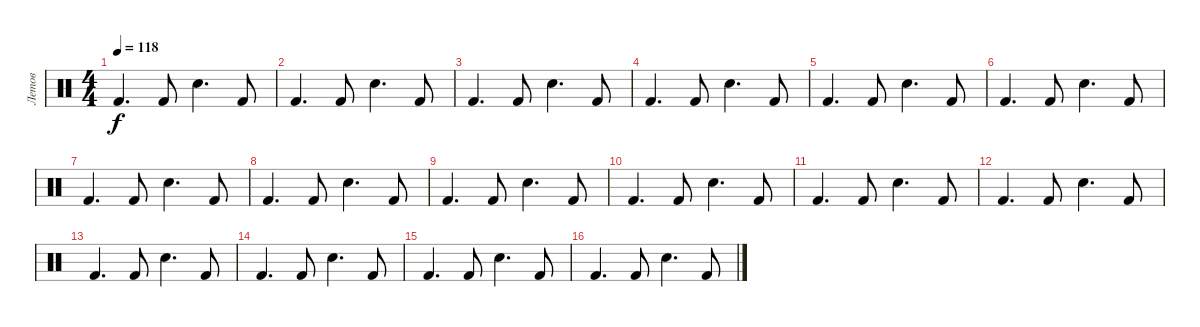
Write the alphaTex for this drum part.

\track ("Летов" "Летов") {instrument percussion}
\staff {score}
\articulation defaults
\ts (4 4)
\tempo 118
\clef neutral
\ks c "Kick (hit) 2".4{d dy f} "Kick (hit) 2".8 "Electric Snare (hit)".4{d} "Kick (hit) 2".8
|
"Kick (hit) 2".4{d} "Kick (hit) 2".8 "Electric Snare (hit)".4{d} "Kick (hit) 2".8 |
"Kick (hit) 2".4{d} "Kick (hit) 2".8 "Electric Snare (hit)".4{d} "Kick (hit) 2".8 |
"Kick (hit) 2".4{d} "Kick (hit) 2".8 "Electric Snare (hit)".4{d} "Kick (hit) 2".8 |
"Kick (hit) 2".4{d} "Kick (hit) 2".8 "Electric Snare (hit)".4{d} "Kick (hit) 2".8 |
"Kick (hit) 2".4{d} "Kick (hit) 2".8 "Electric Snare (hit)".4{d} "Kick (hit) 2".8 |
"Kick (hit) 2".4{d} "Kick (hit) 2".8 "Electric Snare (hit)".4{d} "Kick (hit) 2".8 |
"Kick (hit) 2".4{d} "Kick (hit) 2".8 "Electric Snare (hit)".4{d} "Kick (hit) 2".8 |
"Kick (hit) 2".4{d} "Kick (hit) 2".8 "Electric Snare (hit)".4{d} "Kick (hit) 2".8 |
"Kick (hit) 2".4{d} "Kick (hit) 2".8 "Electric Snare (hit)".4{d} "Kick (hit) 2".8 |
"Kick (hit) 2".4{d} "Kick (hit) 2".8 "Electric Snare (hit)".4{d} "Kick (hit) 2".8 |
"Kick (hit) 2".4{d} "Kick (hit) 2".8 "Electric Snare (hit)".4{d} "Kick (hit) 2".8 |
"Kick (hit) 2".4{d} "Kick (hit) 2".8 "Electric Snare (hit)".4{d} "Kick (hit) 2".8 |
"Kick (hit) 2".4{d} "Kick (hit) 2".8 "Electric Snare (hit)".4{d} "Kick (hit) 2".8 |
"Kick (hit) 2".4{d} "Kick (hit) 2".8 "Electric Snare (hit)".4{d} "Kick (hit) 2".8 |
"Kick (hit) 2".4{d} "Kick (hit) 2".8 "Electric Snare (hit)".4{d} "Kick (hit) 2".8
